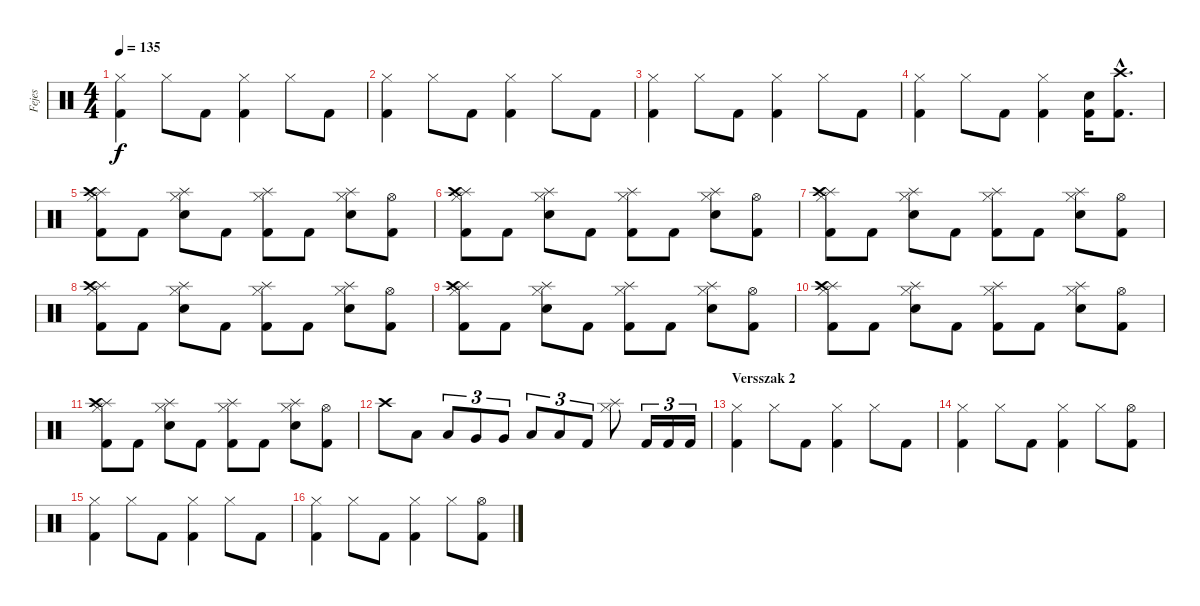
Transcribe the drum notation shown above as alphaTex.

\track ("Fejes" "Fejes") {instrument percussion}
\staff {score}
\articulation defaults
\ts (4 4)
\tempo 135
\clef neutral
\ks c
("Hi-Hat (closed)" "Kick (hit) 2").4{dy f} "Hi-Hat (closed)".8 "Kick (hit) 2".8 ("Hi-Hat (closed)" "Kick (hit) 2").4 "Hi-Hat (closed)".8 "Kick (hit) 2".8 |
("Hi-Hat (closed)" "Kick (hit) 2").4 "Hi-Hat (closed)".8 "Kick (hit) 2".8 ("Hi-Hat (closed)" "Kick (hit) 2").4 "Hi-Hat (closed)".8 "Kick (hit) 2".8 |
("Hi-Hat (closed)" "Kick (hit) 2").4 "Hi-Hat (closed)".8 "Kick (hit) 2".8 ("Hi-Hat (closed)" "Kick (hit) 2").4 "Hi-Hat (closed)".8 "Kick (hit) 2".8 |
("Hi-Hat (closed)" "Kick (hit) 2").4 "Hi-Hat (closed)".8 "Kick (hit) 2".8 ("Hi-Hat (closed)" "Kick (hit) 2").4 ("Electric Snare (hit)" "Kick (hit) 2").16 ("Crash high (hit)"{hac} "Kick (hit) 2"{hac}).8{d} |
("Splash (hit)" "Hi-Hat (closed)" "Crash high (hit)" "Kick (hit) 2").8 "Kick (hit) 2".8 ("Splash (hit)" "Hi-Hat (closed)" "Electric Snare (hit)").8 "Kick (hit) 2".8 ("Splash (hit)" "Hi-Hat (closed)" "Kick (hit) 2").8 "Kick (hit) 2".8 ("Splash (hit)" "Hi-Hat (closed)" "Electric Snare (hit)").8 ("Hi-Hat (open)" "Kick (hit) 2").8 |
("Splash (hit)" "Hi-Hat (closed)" "Crash high (hit)" "Kick (hit) 2").8 "Kick (hit) 2".8 ("Splash (hit)" "Hi-Hat (closed)" "Electric Snare (hit)").8 "Kick (hit) 2".8 ("Splash (hit)" "Hi-Hat (closed)" "Kick (hit) 2").8 "Kick (hit) 2".8 ("Splash (hit)" "Hi-Hat (closed)" "Electric Snare (hit)").8 ("Hi-Hat (open)" "Kick (hit) 2").8 |
("Splash (hit)" "Hi-Hat (closed)" "Crash high (hit)" "Kick (hit) 2").8 "Kick (hit) 2".8 ("Splash (hit)" "Hi-Hat (closed)" "Electric Snare (hit)").8 "Kick (hit) 2".8 ("Splash (hit)" "Hi-Hat (closed)" "Kick (hit) 2").8 "Kick (hit) 2".8 ("Splash (hit)" "Hi-Hat (closed)" "Electric Snare (hit)").8 ("Hi-Hat (open)" "Kick (hit) 2").8 |
("Splash (hit)" "Hi-Hat (closed)" "Crash high (hit)" "Kick (hit) 2").8 "Kick (hit) 2".8 ("Splash (hit)" "Hi-Hat (closed)" "Electric Snare (hit)").8 "Kick (hit) 2".8 ("Splash (hit)" "Hi-Hat (closed)" "Kick (hit) 2").8 "Kick (hit) 2".8 ("Splash (hit)" "Hi-Hat (closed)" "Electric Snare (hit)").8 ("Hi-Hat (open)" "Kick (hit) 2").8 |
("Splash (hit)" "Hi-Hat (closed)" "Crash high (hit)" "Kick (hit) 2").8 "Kick (hit) 2".8 ("Splash (hit)" "Hi-Hat (closed)" "Electric Snare (hit)").8 "Kick (hit) 2".8 ("Splash (hit)" "Hi-Hat (closed)" "Kick (hit) 2").8 "Kick (hit) 2".8 ("Splash (hit)" "Hi-Hat (closed)" "Electric Snare (hit)").8 ("Hi-Hat (open)" "Kick (hit) 2").8 |
("Splash (hit)" "Hi-Hat (closed)" "Crash high (hit)" "Kick (hit) 2").8 "Kick (hit) 2".8 ("Splash (hit)" "Hi-Hat (closed)" "Electric Snare (hit)").8 "Kick (hit) 2".8 ("Splash (hit)" "Hi-Hat (closed)" "Kick (hit) 2").8 "Kick (hit) 2".8 ("Splash (hit)" "Hi-Hat (closed)" "Electric Snare (hit)").8 ("Hi-Hat (open)" "Kick (hit) 2").8 |
("Splash (hit)" "Hi-Hat (closed)" "Crash high (hit)" "Kick (hit) 2").8 "Kick (hit) 2".8 ("Splash (hit)" "Hi-Hat (closed)" "Electric Snare (hit)").8 "Kick (hit) 2".8 ("Splash (hit)" "Hi-Hat (closed)" "Kick (hit) 2").8 "Kick (hit) 2".8 ("Splash (hit)" "Hi-Hat (closed)" "Electric Snare (hit)").8 ("Hi-Hat (open)" "Kick (hit) 2").8 |
"Crash high (hit)".8 "Low Tom (hit)".8 "Low Tom (hit)".8{tu (3 2)} "Very Low Tom (hit)".8{tu (3 2)} "Very Low Tom (hit)".8{tu (3 2)} "Low Floor Tom (hit)".8{tu (3 2)} "Low Floor Tom (hit)".8{tu (3 2)} "Kick (hit) 2".8{tu (3 2)} ("Splash (hit)" "Hi-Hat (closed)").8 "Kick (hit) 2".16{tu (3 2)} "Kick (hit) 2".16{tu (3 2)} "Kick (hit) 2".16{tu (3 2)} |
\section ("" "Versszak 2")
("Hi-Hat (closed)" "Kick (hit) 2").4 "Hi-Hat (closed)".8 "Kick (hit) 2".8 ("Hi-Hat (closed)" "Kick (hit) 2").4 "Hi-Hat (closed)".8 "Kick (hit) 2".8 |
("Hi-Hat (closed)" "Kick (hit) 2").4 "Hi-Hat (closed)".8 "Kick (hit) 2".8 ("Hi-Hat (closed)" "Kick (hit) 2").4 "Hi-Hat (closed)".8 ("Hi-Hat (open)" "Kick (hit) 2").8 |
("Hi-Hat (closed)" "Kick (hit) 2").4 "Hi-Hat (closed)".8 "Kick (hit) 2".8 ("Hi-Hat (closed)" "Kick (hit) 2").4 "Hi-Hat (closed)".8 "Kick (hit) 2".8 |
("Hi-Hat (closed)" "Kick (hit) 2").4 "Hi-Hat (closed)".8 "Kick (hit) 2".8 ("Hi-Hat (closed)" "Kick (hit) 2").4 "Hi-Hat (closed)".8 ("Hi-Hat (open)" "Kick (hit) 2").8
